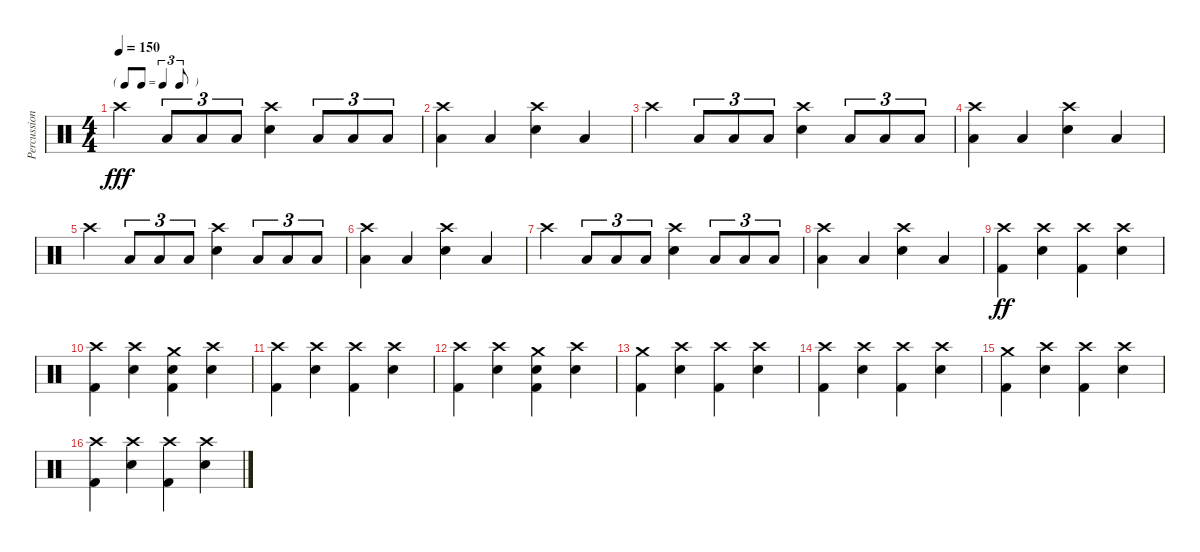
\track ("Percussion" "Percussion") {instrument percussion}
\staff {score}
\articulation defaults
\ts (4 4)
\tf triplet8th
\tempo 150
\clef neutral
\ks c "Crash high (hit)".4{dy fff} "Low Tom (hit)".8{tu (3 2)} "Low Tom (hit)".8{tu (3 2)} "Low Tom (hit)".8{tu (3 2)}
("Crash high (hit)" "Electric Snare (hit)").4 "Low Tom (hit)".8{tu (3 2)} "Low Tom (hit)".8{tu (3 2)} "Low Tom (hit)".8{tu (3 2)} |
("Crash high (hit)" "Low Tom (hit)").4 "Low Tom (hit)".4 ("Crash high (hit)" "Electric Snare (hit)").4 "Low Tom (hit)".4 |
"Crash high (hit)".4 "Low Tom (hit)".8{tu (3 2)} "Low Tom (hit)".8{tu (3 2)} "Low Tom (hit)".8{tu (3 2)} ("Crash high (hit)" "Electric Snare (hit)").4 "Low Tom (hit)".8{tu (3 2)} "Low Tom (hit)".8{tu (3 2)} "Low Tom (hit)".8{tu (3 2)} |
("Crash high (hit)" "Low Tom (hit)").4 "Low Tom (hit)".4 ("Crash high (hit)" "Electric Snare (hit)").4 "Low Tom (hit)".4 |
"Crash high (hit)".4 "Low Tom (hit)".8{tu (3 2)} "Low Tom (hit)".8{tu (3 2)} "Low Tom (hit)".8{tu (3 2)} ("Crash high (hit)" "Electric Snare (hit)").4 "Low Tom (hit)".8{tu (3 2)} "Low Tom (hit)".8{tu (3 2)} "Low Tom (hit)".8{tu (3 2)} |
("Crash high (hit)" "Low Tom (hit)").4 "Low Tom (hit)".4 ("Crash high (hit)" "Electric Snare (hit)").4 "Low Tom (hit)".4 |
"Crash high (hit)".4 "Low Tom (hit)".8{tu (3 2)} "Low Tom (hit)".8{tu (3 2)} "Low Tom (hit)".8{tu (3 2)} ("Crash high (hit)" "Electric Snare (hit)").4 "Low Tom (hit)".8{tu (3 2)} "Low Tom (hit)".8{tu (3 2)} "Low Tom (hit)".8{tu (3 2)} |
("Crash high (hit)" "Low Tom (hit)").4 "Low Tom (hit)".4 ("Crash high (hit)" "Electric Snare (hit)").4 "Low Tom (hit)".4 |
("Crash high (hit)" "Kick (hit) 2").4{dy ff} ("Crash high (hit)" "Electric Snare (hit)").4 ("Crash high (hit)" "Kick (hit) 2").4 ("Crash high (hit)" "Electric Snare (hit)").4 |
("Crash high (hit)" "Kick (hit) 2").4 ("Crash high (hit)" "Electric Snare (hit)").4 ("Crash medium (hit)" "Electric Snare (hit)" "Kick (hit) 2").4 ("Crash high (hit)" "Electric Snare (hit)").4 |
("Crash high (hit)" "Kick (hit) 2").4 ("Crash high (hit)" "Electric Snare (hit)").4 ("Crash high (hit)" "Kick (hit) 2").4 ("Crash high (hit)" "Electric Snare (hit)").4 |
("Crash high (hit)" "Kick (hit) 2").4 ("Crash high (hit)" "Electric Snare (hit)").4 ("Crash medium (hit)" "Electric Snare (hit)" "Kick (hit) 2").4 ("Crash high (hit)" "Electric Snare (hit)").4 |
("Crash medium (hit)" "Kick (hit) 2").4 ("Crash high (hit)" "Electric Snare (hit)").4 ("Crash high (hit)" "Kick (hit) 2").4 ("Crash high (hit)" "Electric Snare (hit)").4 |
("Crash high (hit)" "Kick (hit) 2").4 ("Crash high (hit)" "Electric Snare (hit)").4 ("Crash high (hit)" "Kick (hit) 2").4 ("Crash high (hit)" "Electric Snare (hit)").4 |
("Crash medium (hit)" "Kick (hit) 2").4 ("Crash high (hit)" "Electric Snare (hit)").4 ("Crash high (hit)" "Kick (hit) 2").4 ("Crash high (hit)" "Electric Snare (hit)").4 |
("Crash high (hit)" "Kick (hit) 2").4 ("Crash high (hit)" "Electric Snare (hit)").4 ("Crash high (hit)" "Kick (hit) 2").4 ("Crash high (hit)" "Electric Snare (hit)").4
